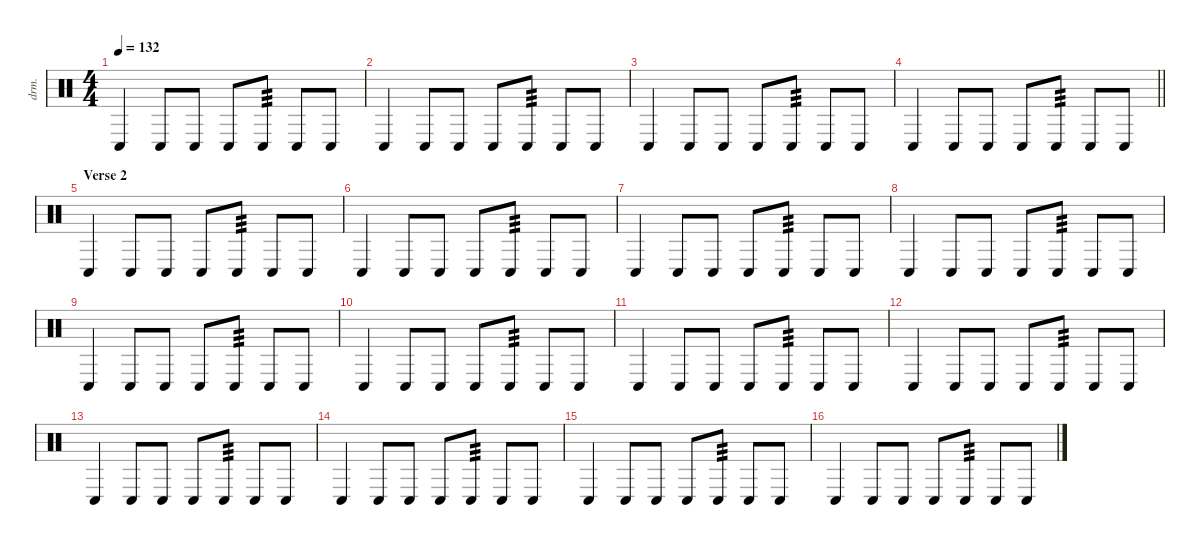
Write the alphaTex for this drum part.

\defaultSystemsLayout 4
\hideDynamics
\bracketExtendMode nobrackets
\otherSystemsTrackNameOrientation horizontal
\track ("Percussion" "drm.") {instrument percussion}
\staff {score}
\articulation defaults
\ts (4 4)
\tempo 132
\clef neutral
\ks c "Conga low (hit)".4{dy f beam Up} "Conga low (hit)".8{beam Up} "Conga low (hit)".8{beam Up} "Conga low (hit)".8{beam Up} "Conga low (hit)".8{tp 3 beam Up} "Conga low (hit)".8{beam Up} "Conga low (hit)".8{beam Up}
|
"Conga low (hit)".4{beam Up} "Conga low (hit)".8{beam Up} "Conga low (hit)".8{beam Up} "Conga low (hit)".8{beam Up} "Conga low (hit)".8{tp 3 beam Up} "Conga low (hit)".8{beam Up} "Conga low (hit)".8{beam Up} |
"Conga low (hit)".4{beam Up} "Conga low (hit)".8{beam Up} "Conga low (hit)".8{beam Up} "Conga low (hit)".8{beam Up} "Conga low (hit)".8{tp 3 beam Up} "Conga low (hit)".8{beam Up} "Conga low (hit)".8{beam Up} |
\barLineRight lightlight "Conga low (hit)".4{beam Up} "Conga low (hit)".8{beam Up} "Conga low (hit)".8{beam Up} "Conga low (hit)".8{beam Up} "Conga low (hit)".8{tp 3 beam Up} "Conga low (hit)".8{beam Up} "Conga low (hit)".8{beam Up}
|
\section ("" "Verse 2")
"Conga low (hit)".4{beam Up} "Conga low (hit)".8{beam Up} "Conga low (hit)".8{beam Up} "Conga low (hit)".8{beam Up} "Conga low (hit)".8{tp 3 beam Up} "Conga low (hit)".8{beam Up} "Conga low (hit)".8{beam Up} |
"Conga low (hit)".4{beam Up} "Conga low (hit)".8{beam Up} "Conga low (hit)".8{beam Up} "Conga low (hit)".8{beam Up} "Conga low (hit)".8{tp 3 beam Up} "Conga low (hit)".8{beam Up} "Conga low (hit)".8{beam Up} |
"Conga low (hit)".4{beam Up} "Conga low (hit)".8{beam Up} "Conga low (hit)".8{beam Up} "Conga low (hit)".8{beam Up} "Conga low (hit)".8{tp 3 beam Up} "Conga low (hit)".8{beam Up} "Conga low (hit)".8{beam Up} |
"Conga low (hit)".4{beam Up} "Conga low (hit)".8{beam Up} "Conga low (hit)".8{beam Up} "Conga low (hit)".8{beam Up} "Conga low (hit)".8{tp 3 beam Up} "Conga low (hit)".8{beam Up} "Conga low (hit)".8{beam Up} |
"Conga low (hit)".4{beam Up} "Conga low (hit)".8{beam Up} "Conga low (hit)".8{beam Up} "Conga low (hit)".8{beam Up} "Conga low (hit)".8{tp 3 beam Up} "Conga low (hit)".8{beam Up} "Conga low (hit)".8{beam Up} |
"Conga low (hit)".4{beam Up} "Conga low (hit)".8{beam Up} "Conga low (hit)".8{beam Up} "Conga low (hit)".8{beam Up} "Conga low (hit)".8{tp 3 beam Up} "Conga low (hit)".8{beam Up} "Conga low (hit)".8{beam Up} |
"Conga low (hit)".4{beam Up} "Conga low (hit)".8{beam Up} "Conga low (hit)".8{beam Up} "Conga low (hit)".8{beam Up} "Conga low (hit)".8{tp 3 beam Up} "Conga low (hit)".8{beam Up} "Conga low (hit)".8{beam Up} |
"Conga low (hit)".4{beam Up} "Conga low (hit)".8{beam Up} "Conga low (hit)".8{beam Up} "Conga low (hit)".8{beam Up} "Conga low (hit)".8{tp 3 beam Up} "Conga low (hit)".8{beam Up} "Conga low (hit)".8{beam Up} |
"Conga low (hit)".4{beam Up} "Conga low (hit)".8{beam Up} "Conga low (hit)".8{beam Up} "Conga low (hit)".8{beam Up} "Conga low (hit)".8{tp 3 beam Up} "Conga low (hit)".8{beam Up} "Conga low (hit)".8{beam Up} |
"Conga low (hit)".4{beam Up} "Conga low (hit)".8{beam Up} "Conga low (hit)".8{beam Up} "Conga low (hit)".8{beam Up} "Conga low (hit)".8{tp 3 beam Up} "Conga low (hit)".8{beam Up} "Conga low (hit)".8{beam Up} |
"Conga low (hit)".4{beam Up} "Conga low (hit)".8{beam Up} "Conga low (hit)".8{beam Up} "Conga low (hit)".8{beam Up} "Conga low (hit)".8{tp 3 beam Up} "Conga low (hit)".8{beam Up} "Conga low (hit)".8{beam Up} |
"Conga low (hit)".4{beam Up} "Conga low (hit)".8{beam Up} "Conga low (hit)".8{beam Up} "Conga low (hit)".8{beam Up} "Conga low (hit)".8{tp 3 beam Up} "Conga low (hit)".8{beam Up} "Conga low (hit)".8{beam Up}
